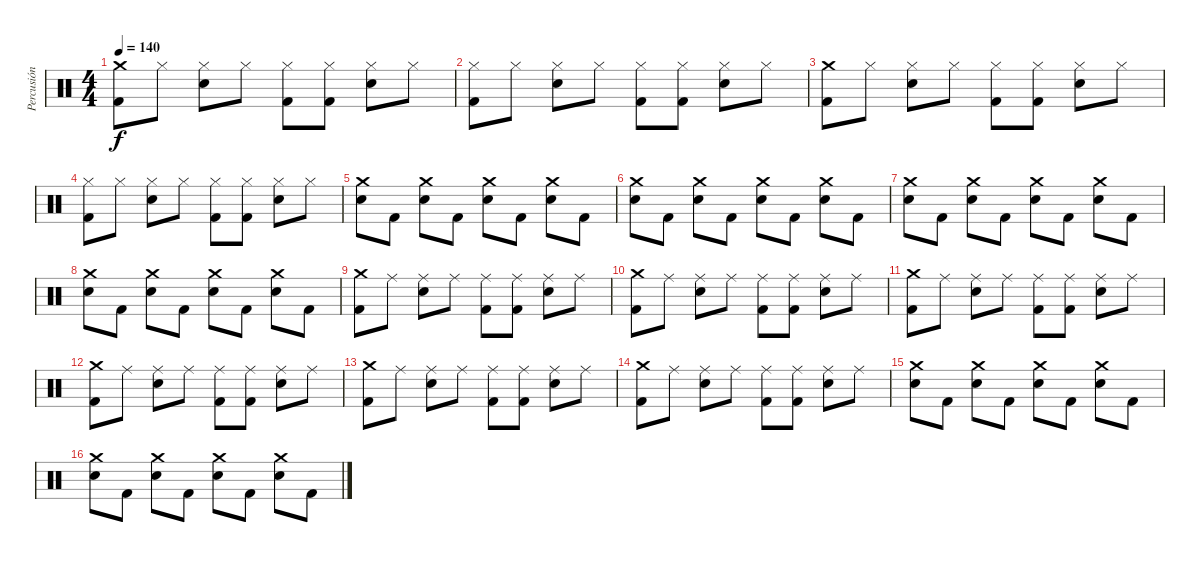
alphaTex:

\track ("Percusión" "Percusión") {instrument percussion}
\staff {score}
\articulation defaults
\ts (4 4)
\tempo 140
\clef neutral
\ks c
("Crash medium (hit)" "Kick (hit) 2").8{dy f} "Hi-Hat (closed)".8 ("Hi-Hat (closed)" "Snare (hit) 2").8 "Hi-Hat (closed)".8 ("Hi-Hat (closed)" "Kick (hit) 2").8 ("Hi-Hat (closed)" "Kick (hit) 2").8 ("Hi-Hat (closed)" "Snare (hit) 2").8 "Hi-Hat (closed)".8 |
("Hi-Hat (closed)" "Kick (hit) 2").8 "Hi-Hat (closed)".8 ("Hi-Hat (closed)" "Snare (hit) 2").8 "Hi-Hat (closed)".8 ("Hi-Hat (closed)" "Kick (hit) 2").8 ("Hi-Hat (closed)" "Kick (hit) 2").8 ("Hi-Hat (closed)" "Snare (hit) 2").8 "Hi-Hat (closed)".8 |
("Crash medium (hit)" "Kick (hit) 2").8 "Hi-Hat (closed)".8 ("Hi-Hat (closed)" "Snare (hit) 2").8 "Hi-Hat (closed)".8 ("Hi-Hat (closed)" "Kick (hit) 2").8 ("Hi-Hat (closed)" "Kick (hit) 2").8 ("Hi-Hat (closed)" "Snare (hit) 2").8 "Hi-Hat (closed)".8 |
("Hi-Hat (closed)" "Kick (hit) 2").8 "Hi-Hat (closed)".8 ("Hi-Hat (closed)" "Snare (hit) 2").8 "Hi-Hat (closed)".8 ("Hi-Hat (closed)" "Kick (hit) 2").8 ("Hi-Hat (closed)" "Kick (hit) 2").8 ("Hi-Hat (closed)" "Snare (hit) 2").8 "Hi-Hat (closed)".8 |
("Crash medium (hit)" "Snare (hit) 2").8 "Kick (hit) 2".8 ("Crash medium (hit)" "Snare (hit) 2").8 "Kick (hit) 2".8 ("Crash medium (hit)" "Snare (hit) 2").8 "Kick (hit) 2".8 ("Crash medium (hit)" "Snare (hit) 2").8 "Kick (hit) 2".8 |
("Crash medium (hit)" "Snare (hit) 2").8 "Kick (hit) 2".8 ("Crash medium (hit)" "Snare (hit) 2").8 "Kick (hit) 2".8 ("Crash medium (hit)" "Snare (hit) 2").8 "Kick (hit) 2".8 ("Crash medium (hit)" "Snare (hit) 2").8 "Kick (hit) 2".8 |
("Crash medium (hit)" "Snare (hit) 2").8 "Kick (hit) 2".8 ("Crash medium (hit)" "Snare (hit) 2").8 "Kick (hit) 2".8 ("Crash medium (hit)" "Snare (hit) 2").8 "Kick (hit) 2".8 ("Crash medium (hit)" "Snare (hit) 2").8 "Kick (hit) 2".8 |
("Crash medium (hit)" "Snare (hit) 2").8 "Kick (hit) 2".8 ("Crash medium (hit)" "Snare (hit) 2").8 "Kick (hit) 2".8 ("Crash medium (hit)" "Snare (hit) 2").8 "Kick (hit) 2".8 ("Crash medium (hit)" "Snare (hit) 2").8 "Kick (hit) 2".8 |
("Crash medium (hit)" "Kick (hit) 2").8 "Ride (middle)".8 ("Ride (middle)" "Snare (hit) 2").8 "Ride (middle)".8 ("Ride (middle)" "Kick (hit) 2").8 ("Ride (middle)" "Kick (hit) 2").8 ("Ride (middle)" "Snare (hit) 2").8 "Ride (middle)".8 |
("Crash medium (hit)" "Kick (hit) 2").8 "Ride (middle)".8 ("Ride (middle)" "Snare (hit) 2").8 "Ride (middle)".8 ("Ride (middle)" "Kick (hit) 2").8 ("Ride (middle)" "Kick (hit) 2").8 ("Ride (middle)" "Snare (hit) 2").8 "Ride (middle)".8 |
("Crash medium (hit)" "Kick (hit) 2").8 "Ride (middle)".8 ("Ride (middle)" "Snare (hit) 2").8 "Ride (middle)".8 ("Ride (middle)" "Kick (hit) 2").8 ("Ride (middle)" "Kick (hit) 2").8 ("Ride (middle)" "Snare (hit) 2").8 "Ride (middle)".8 |
("Crash medium (hit)" "Kick (hit) 2").8 "Ride (middle)".8 ("Ride (middle)" "Snare (hit) 2").8 "Ride (middle)".8 ("Ride (middle)" "Kick (hit) 2").8 ("Ride (middle)" "Kick (hit) 2").8 ("Ride (middle)" "Snare (hit) 2").8 "Ride (middle)".8 |
("Crash medium (hit)" "Kick (hit) 2").8 "Ride (middle)".8 ("Ride (middle)" "Snare (hit) 2").8 "Ride (middle)".8 ("Ride (middle)" "Kick (hit) 2").8 ("Ride (middle)" "Kick (hit) 2").8 ("Ride (middle)" "Snare (hit) 2").8 "Ride (middle)".8 |
("Crash medium (hit)" "Kick (hit) 2").8 "Ride (middle)".8 ("Ride (middle)" "Snare (hit) 2").8 "Ride (middle)".8 ("Ride (middle)" "Kick (hit) 2").8 ("Ride (middle)" "Kick (hit) 2").8 ("Ride (middle)" "Snare (hit) 2").8 "Ride (middle)".8 |
("Crash medium (hit)" "Snare (hit) 2").8 "Kick (hit) 2".8 ("Crash medium (hit)" "Snare (hit) 2").8 "Kick (hit) 2".8 ("Crash medium (hit)" "Snare (hit) 2").8 "Kick (hit) 2".8 ("Crash medium (hit)" "Snare (hit) 2").8 "Kick (hit) 2".8 |
("Crash medium (hit)" "Snare (hit) 2").8 "Kick (hit) 2".8 ("Crash medium (hit)" "Snare (hit) 2").8 "Kick (hit) 2".8 ("Crash medium (hit)" "Snare (hit) 2").8 "Kick (hit) 2".8 ("Crash medium (hit)" "Snare (hit) 2").8 "Kick (hit) 2".8
